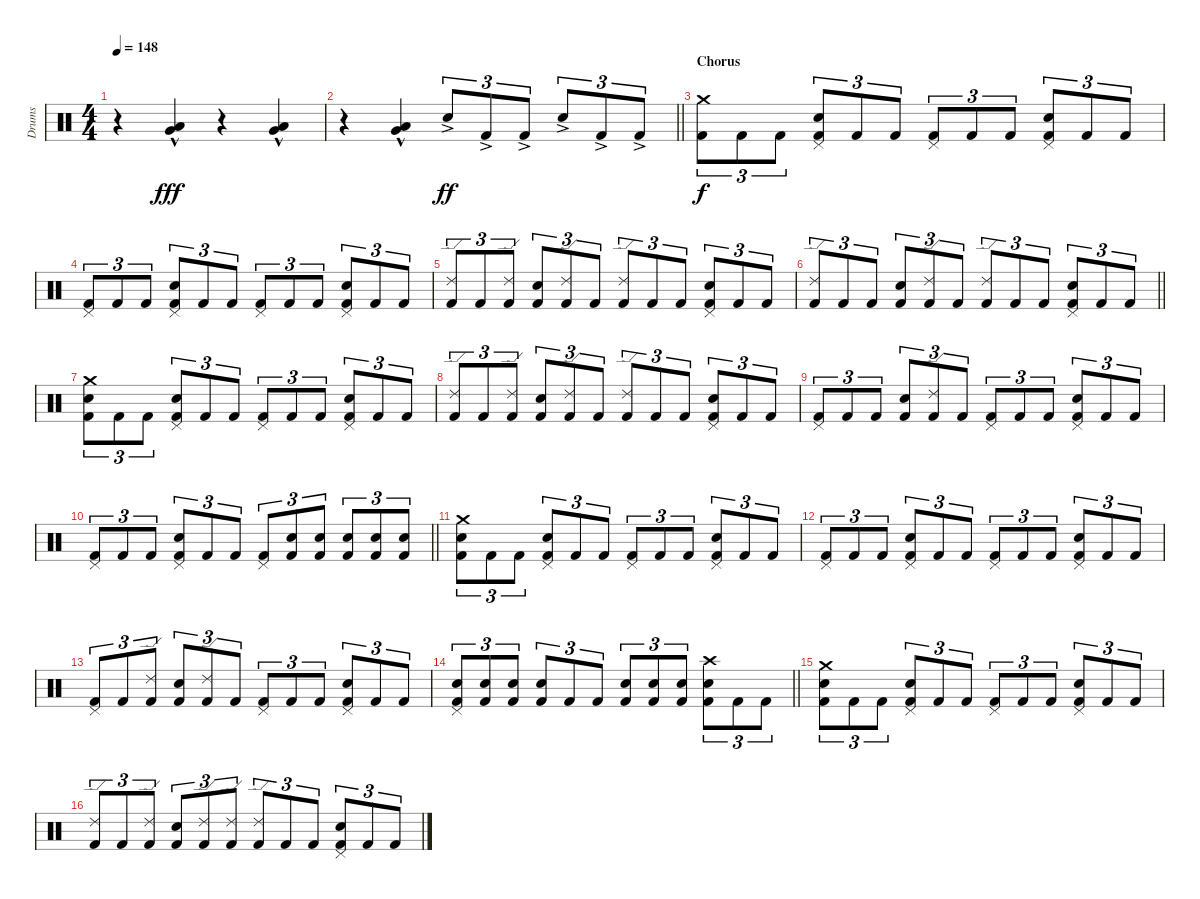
\track ("Drums" "Drums") {instrument percussion}
\staff {score}
\articulation defaults
\ts (4 4)
\tempo 148
\clef neutral
\ks c
r.4{dy fff} ("Very Low Tom (hit)"{hac} "Low Floor Tom (hit)"{hac}).4 r.4 ("Very Low Tom (hit)"{hac} "Low Floor Tom (hit)"{hac}).4 |
\barLineRight lightlight
r.4 ("Very Low Tom (hit)"{hac} "Low Floor Tom (hit)"{hac}).4 "Snare (hit) 2"{ac}.8{tu (3 2) dy ff} "Kick (hit) 2"{ac}.8{tu (3 2)} "Kick (hit) 2"{ac}.8{tu (3 2)} "Snare (hit) 2"{ac}.8{tu (3 2)} "Kick (hit) 2"{ac}.8{tu (3 2)} "Kick (hit) 2"{ac}.8{tu (3 2)} |
\section ("" "Chorus")
("Kick (hit) 2" "Crash medium (hit)").8{tu (3 2) dy f} "Kick (hit) 2".8{tu (3 2)} "Kick (hit) 2".8{tu (3 2)} ("Kick (hit) 2" "Snare (hit) 2" "Pedal Hi-Hat (hit)").8{tu (3 2)} "Kick (hit) 2".8{tu (3 2)} "Kick (hit) 2".8{tu (3 2)} ("Kick (hit) 2" "Pedal Hi-Hat (hit)").8{tu (3 2)} "Kick (hit) 2".8{tu (3 2)} "Kick (hit) 2".8{tu (3 2)} ("Kick (hit) 2" "Snare (hit) 2" "Pedal Hi-Hat (hit)").8{tu (3 2)} "Kick (hit) 2".8{tu (3 2)} "Kick (hit) 2".8{tu (3 2)} |
("Kick (hit) 2" "Pedal Hi-Hat (hit)").8{tu (3 2)} "Kick (hit) 2".8{tu (3 2)} "Kick (hit) 2".8{tu (3 2)} ("Kick (hit) 2" "Snare (hit) 2" "Pedal Hi-Hat (hit)").8{tu (3 2)} "Kick (hit) 2".8{tu (3 2)} "Kick (hit) 2".8{tu (3 2)} ("Kick (hit) 2" "Pedal Hi-Hat (hit)").8{tu (3 2)} "Kick (hit) 2".8{tu (3 2)} "Kick (hit) 2".8{tu (3 2)} ("Kick (hit) 2" "Snare (hit) 2" "Pedal Hi-Hat (hit)").8{tu (3 2)} "Kick (hit) 2".8{tu (3 2)} "Kick (hit) 2".8{tu (3 2)} |
("Kick (hit) 2" "Ride (edge) 2").8{tu (3 2)} "Kick (hit) 2".8{tu (3 2)} ("Kick (hit) 2" "Ride (edge) 2").8{tu (3 2)} ("Kick (hit) 2" "Snare (hit) 2").8{tu (3 2)} ("Kick (hit) 2" "Ride (edge) 2").8{tu (3 2)} "Kick (hit) 2".8{tu (3 2)} ("Kick (hit) 2" "Ride (edge) 2").8{tu (3 2)} "Kick (hit) 2".8{tu (3 2)} "Kick (hit) 2".8{tu (3 2)} ("Kick (hit) 2" "Snare (hit) 2" "Pedal Hi-Hat (hit)").8{tu (3 2)} "Kick (hit) 2".8{tu (3 2)} "Kick (hit) 2".8{tu (3 2)} |
\barLineRight lightlight
("Kick (hit) 2" "Ride (edge) 2").8{tu (3 2)} "Kick (hit) 2".8{tu (3 2)} "Kick (hit) 2".8{tu (3 2)} ("Kick (hit) 2" "Snare (hit) 2").8{tu (3 2)} ("Kick (hit) 2" "Ride (edge) 2").8{tu (3 2)} "Kick (hit) 2".8{tu (3 2)} ("Kick (hit) 2" "Ride (edge) 2").8{tu (3 2)} "Kick (hit) 2".8{tu (3 2)} "Kick (hit) 2".8{tu (3 2)} ("Kick (hit) 2" "Snare (hit) 2" "Pedal Hi-Hat (hit)").8{tu (3 2)} "Kick (hit) 2".8{tu (3 2)} "Kick (hit) 2".8{tu (3 2)} |
\section ("" "")
("Kick (hit) 2" "Snare (hit) 2" "Crash medium (hit)").8{tu (3 2)} "Kick (hit) 2".8{tu (3 2)} "Kick (hit) 2".8{tu (3 2)} ("Kick (hit) 2" "Snare (hit) 2" "Pedal Hi-Hat (hit)").8{tu (3 2)} "Kick (hit) 2".8{tu (3 2)} "Kick (hit) 2".8{tu (3 2)} ("Kick (hit) 2" "Pedal Hi-Hat (hit)").8{tu (3 2)} "Kick (hit) 2".8{tu (3 2)} "Kick (hit) 2".8{tu (3 2)} ("Kick (hit) 2" "Snare (hit) 2" "Pedal Hi-Hat (hit)").8{tu (3 2)} "Kick (hit) 2".8{tu (3 2)} "Kick (hit) 2".8{tu (3 2)} |
("Kick (hit) 2" "Ride (edge) 2").8{tu (3 2)} "Kick (hit) 2".8{tu (3 2)} ("Kick (hit) 2" "Ride (edge) 2").8{tu (3 2)} ("Kick (hit) 2" "Snare (hit) 2").8{tu (3 2)} ("Kick (hit) 2" "Ride (edge) 2").8{tu (3 2)} "Kick (hit) 2".8{tu (3 2)} ("Kick (hit) 2" "Ride (edge) 2").8{tu (3 2)} "Kick (hit) 2".8{tu (3 2)} "Kick (hit) 2".8{tu (3 2)} ("Kick (hit) 2" "Snare (hit) 2" "Pedal Hi-Hat (hit)").8{tu (3 2)} "Kick (hit) 2".8{tu (3 2)} "Kick (hit) 2".8{tu (3 2)} |
("Kick (hit) 2" "Pedal Hi-Hat (hit)").8{tu (3 2)} "Kick (hit) 2".8{tu (3 2)} "Kick (hit) 2".8{tu (3 2)} ("Kick (hit) 2" "Snare (hit) 2").8{tu (3 2)} ("Kick (hit) 2" "Ride (edge) 2").8{tu (3 2)} "Kick (hit) 2".8{tu (3 2)} ("Kick (hit) 2" "Pedal Hi-Hat (hit)").8{tu (3 2)} "Kick (hit) 2".8{tu (3 2)} "Kick (hit) 2".8{tu (3 2)} ("Kick (hit) 2" "Snare (hit) 2" "Pedal Hi-Hat (hit)").8{tu (3 2)} "Kick (hit) 2".8{tu (3 2)} "Kick (hit) 2".8{tu (3 2)} |
\barLineRight lightlight
("Kick (hit) 2" "Pedal Hi-Hat (hit)").8{tu (3 2)} "Kick (hit) 2".8{tu (3 2)} "Kick (hit) 2".8{tu (3 2)} ("Kick (hit) 2" "Snare (hit) 2" "Pedal Hi-Hat (hit)").8{tu (3 2)} "Kick (hit) 2".8{tu (3 2)} "Kick (hit) 2".8{tu (3 2)} ("Kick (hit) 2" "Pedal Hi-Hat (hit)").8{tu (3 2)} ("Kick (hit) 2" "Snare (hit) 2").8{tu (3 2)} ("Kick (hit) 2" "Snare (hit) 2").8{tu (3 2)} ("Kick (hit) 2" "Snare (hit) 2").8{tu (3 2)} ("Kick (hit) 2" "Snare (hit) 2").8{tu (3 2)} ("Kick (hit) 2" "Snare (hit) 2").8{tu (3 2)} |
\section ("" "")
("Kick (hit) 2" "Snare (hit) 2" "Crash medium (hit)").8{tu (3 2)} "Kick (hit) 2".8{tu (3 2)} "Kick (hit) 2".8{tu (3 2)} ("Kick (hit) 2" "Snare (hit) 2" "Pedal Hi-Hat (hit)").8{tu (3 2)} "Kick (hit) 2".8{tu (3 2)} "Kick (hit) 2".8{tu (3 2)} ("Kick (hit) 2" "Pedal Hi-Hat (hit)").8{tu (3 2)} "Kick (hit) 2".8{tu (3 2)} "Kick (hit) 2".8{tu (3 2)} ("Kick (hit) 2" "Snare (hit) 2" "Pedal Hi-Hat (hit)").8{tu (3 2)} "Kick (hit) 2".8{tu (3 2)} "Kick (hit) 2".8{tu (3 2)} |
("Kick (hit) 2" "Pedal Hi-Hat (hit)").8{tu (3 2)} "Kick (hit) 2".8{tu (3 2)} "Kick (hit) 2".8{tu (3 2)} ("Kick (hit) 2" "Snare (hit) 2" "Pedal Hi-Hat (hit)").8{tu (3 2)} "Kick (hit) 2".8{tu (3 2)} "Kick (hit) 2".8{tu (3 2)} ("Kick (hit) 2" "Pedal Hi-Hat (hit)").8{tu (3 2)} "Kick (hit) 2".8{tu (3 2)} "Kick (hit) 2".8{tu (3 2)} ("Kick (hit) 2" "Snare (hit) 2" "Pedal Hi-Hat (hit)").8{tu (3 2)} "Kick (hit) 2".8{tu (3 2)} "Kick (hit) 2".8{tu (3 2)} |
("Kick (hit) 2" "Pedal Hi-Hat (hit)").8{tu (3 2)} "Kick (hit) 2".8{tu (3 2)} ("Kick (hit) 2" "Ride (edge) 2").8{tu (3 2)} ("Kick (hit) 2" "Snare (hit) 2").8{tu (3 2)} ("Kick (hit) 2" "Ride (edge) 2").8{tu (3 2)} "Kick (hit) 2".8{tu (3 2)} ("Kick (hit) 2" "Pedal Hi-Hat (hit)").8{tu (3 2)} "Kick (hit) 2".8{tu (3 2)} "Kick (hit) 2".8{tu (3 2)} ("Kick (hit) 2" "Snare (hit) 2" "Pedal Hi-Hat (hit)").8{tu (3 2)} "Kick (hit) 2".8{tu (3 2)} "Kick (hit) 2".8{tu (3 2)} |
\barLineRight lightlight
("Kick (hit) 2" "Snare (hit) 2" "Pedal Hi-Hat (hit)").8{tu (3 2)} ("Kick (hit) 2" "Snare (hit) 2").8{tu (3 2)} ("Kick (hit) 2" "Snare (hit) 2").8{tu (3 2)} ("Kick (hit) 2" "Snare (hit) 2").8{tu (3 2)} "Kick (hit) 2".8{tu (3 2)} "Kick (hit) 2".8{tu (3 2)} ("Kick (hit) 2" "Snare (hit) 2").8{tu (3 2)} ("Kick (hit) 2" "Snare (hit) 2").8{tu (3 2)} ("Kick (hit) 2" "Snare (hit) 2").8{tu (3 2)} ("Kick (hit) 2" "Snare (hit) 2" "Crash high (hit)").8{tu (3 2)} "Kick (hit) 2".8{tu (3 2)} "Kick (hit) 2".8{tu (3 2)} |
\section ("" "")
("Kick (hit) 2" "Snare (hit) 2" "Crash medium (hit)").8{tu (3 2)} "Kick (hit) 2".8{tu (3 2)} "Kick (hit) 2".8{tu (3 2)} ("Kick (hit) 2" "Snare (hit) 2" "Pedal Hi-Hat (hit)").8{tu (3 2)} "Kick (hit) 2".8{tu (3 2)} "Kick (hit) 2".8{tu (3 2)} ("Kick (hit) 2" "Pedal Hi-Hat (hit)").8{tu (3 2)} "Kick (hit) 2".8{tu (3 2)} "Kick (hit) 2".8{tu (3 2)} ("Kick (hit) 2" "Snare (hit) 2" "Pedal Hi-Hat (hit)").8{tu (3 2)} "Kick (hit) 2".8{tu (3 2)} "Kick (hit) 2".8{tu (3 2)} |
("Kick (hit) 2" "Ride (edge) 2").8{tu (3 2)} "Kick (hit) 2".8{tu (3 2)} ("Kick (hit) 2" "Ride (edge) 2").8{tu (3 2)} ("Kick (hit) 2" "Snare (hit) 2").8{tu (3 2)} ("Kick (hit) 2" "Ride (edge) 2").8{tu (3 2)} ("Kick (hit) 2" "Ride (edge) 2").8{tu (3 2)} ("Kick (hit) 2" "Ride (edge) 2").8{tu (3 2)} "Kick (hit) 2".8{tu (3 2)} "Kick (hit) 2".8{tu (3 2)} ("Kick (hit) 2" "Snare (hit) 2" "Pedal Hi-Hat (hit)").8{tu (3 2)} "Kick (hit) 2".8{tu (3 2)} "Kick (hit) 2".8{tu (3 2)}
